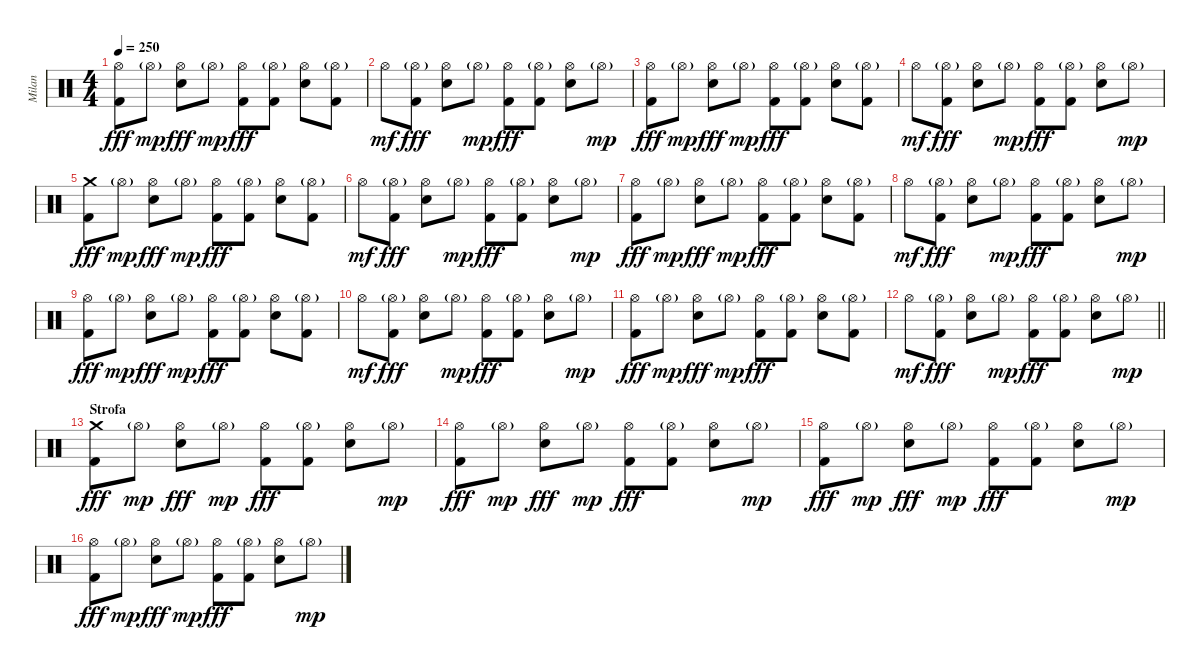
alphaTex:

\track ("Milan" "Milan") {instrument percussion}
\staff {score}
\articulation defaults
\ts (4 4)
\tempo 250
\clef neutral
\ks c
("Hi-Hat (open)" "Kick (hit) 2").8{dy fff} "Hi-Hat (open)"{g}.8{dy mp} ("Hi-Hat (open)" "Snare (hit) 2").8{dy fff} "Hi-Hat (open)"{g}.8{dy mp} ("Hi-Hat (open)" "Kick (hit) 2").8{dy fff} ("Hi-Hat (open)"{g} "Kick (hit) 2").8 ("Hi-Hat (open)" "Snare (hit) 2").8 ("Hi-Hat (open)"{g} "Kick (hit) 2").8 |
"Hi-Hat (open)".8{dy mf} ("Hi-Hat (open)"{g} "Kick (hit) 2").8{dy fff} ("Hi-Hat (open)" "Snare (hit) 2").8 "Hi-Hat (open)"{g}.8{dy mp} ("Hi-Hat (open)" "Kick (hit) 2").8{dy fff} ("Hi-Hat (open)"{g} "Kick (hit) 2").8 ("Hi-Hat (open)" "Snare (hit) 2").8 "Hi-Hat (open)"{g}.8{dy mp} |
("Hi-Hat (open)" "Kick (hit) 2").8{dy fff} "Hi-Hat (open)"{g}.8{dy mp} ("Hi-Hat (open)" "Snare (hit) 2").8{dy fff} "Hi-Hat (open)"{g}.8{dy mp} ("Hi-Hat (open)" "Kick (hit) 2").8{dy fff} ("Hi-Hat (open)"{g} "Kick (hit) 2").8 ("Hi-Hat (open)" "Snare (hit) 2").8 ("Hi-Hat (open)"{g} "Kick (hit) 2").8 |
"Hi-Hat (open)".8{dy mf} ("Hi-Hat (open)"{g} "Kick (hit) 2").8{dy fff} ("Hi-Hat (open)" "Snare (hit) 2").8 "Hi-Hat (open)"{g}.8{dy mp} ("Hi-Hat (open)" "Kick (hit) 2").8{dy fff} ("Hi-Hat (open)"{g} "Kick (hit) 2").8 ("Hi-Hat (open)" "Snare (hit) 2").8 "Hi-Hat (open)"{g}.8{dy mp} |
("Crash medium (hit)" "Kick (hit) 2").8{dy fff} "Hi-Hat (open)"{g}.8{dy mp} ("Hi-Hat (open)" "Snare (hit) 2").8{dy fff} "Hi-Hat (open)"{g}.8{dy mp} ("Hi-Hat (open)" "Kick (hit) 2").8{dy fff} ("Hi-Hat (open)"{g} "Kick (hit) 2").8 ("Hi-Hat (open)" "Snare (hit) 2").8 ("Hi-Hat (open)"{g} "Kick (hit) 2").8 |
"Hi-Hat (open)".8{dy mf} ("Hi-Hat (open)"{g} "Kick (hit) 2").8{dy fff} ("Hi-Hat (open)" "Snare (hit) 2").8 "Hi-Hat (open)"{g}.8{dy mp} ("Hi-Hat (open)" "Kick (hit) 2").8{dy fff} ("Hi-Hat (open)"{g} "Kick (hit) 2").8 ("Hi-Hat (open)" "Snare (hit) 2").8 "Hi-Hat (open)"{g}.8{dy mp} |
("Hi-Hat (open)" "Kick (hit) 2").8{dy fff} "Hi-Hat (open)"{g}.8{dy mp} ("Hi-Hat (open)" "Snare (hit) 2").8{dy fff} "Hi-Hat (open)"{g}.8{dy mp} ("Hi-Hat (open)" "Kick (hit) 2").8{dy fff} ("Hi-Hat (open)"{g} "Kick (hit) 2").8 ("Hi-Hat (open)" "Snare (hit) 2").8 ("Hi-Hat (open)"{g} "Kick (hit) 2").8 |
"Hi-Hat (open)".8{dy mf} ("Hi-Hat (open)"{g} "Kick (hit) 2").8{dy fff} ("Hi-Hat (open)" "Snare (hit) 2").8 "Hi-Hat (open)"{g}.8{dy mp} ("Hi-Hat (open)" "Kick (hit) 2").8{dy fff} ("Hi-Hat (open)"{g} "Kick (hit) 2").8 ("Hi-Hat (open)" "Snare (hit) 2").8 "Hi-Hat (open)"{g}.8{dy mp} |
("Hi-Hat (open)" "Kick (hit) 2").8{dy fff} "Hi-Hat (open)"{g}.8{dy mp} ("Hi-Hat (open)" "Snare (hit) 2").8{dy fff} "Hi-Hat (open)"{g}.8{dy mp} ("Hi-Hat (open)" "Kick (hit) 2").8{dy fff} ("Hi-Hat (open)"{g} "Kick (hit) 2").8 ("Hi-Hat (open)" "Snare (hit) 2").8 ("Hi-Hat (open)"{g} "Kick (hit) 2").8 |
"Hi-Hat (open)".8{dy mf} ("Hi-Hat (open)"{g} "Kick (hit) 2").8{dy fff} ("Hi-Hat (open)" "Snare (hit) 2").8 "Hi-Hat (open)"{g}.8{dy mp} ("Hi-Hat (open)" "Kick (hit) 2").8{dy fff} ("Hi-Hat (open)"{g} "Kick (hit) 2").8 ("Hi-Hat (open)" "Snare (hit) 2").8 "Hi-Hat (open)"{g}.8{dy mp} |
("Hi-Hat (open)" "Kick (hit) 2").8{dy fff} "Hi-Hat (open)"{g}.8{dy mp} ("Hi-Hat (open)" "Snare (hit) 2").8{dy fff} "Hi-Hat (open)"{g}.8{dy mp} ("Hi-Hat (open)" "Kick (hit) 2").8{dy fff} ("Hi-Hat (open)"{g} "Kick (hit) 2").8 ("Hi-Hat (open)" "Snare (hit) 2").8 ("Hi-Hat (open)"{g} "Kick (hit) 2").8 |
\barLineRight lightlight "Hi-Hat (open)".8{dy mf}
("Hi-Hat (open)"{g} "Kick (hit) 2").8{dy fff} ("Hi-Hat (open)" "Snare (hit) 2").8 "Hi-Hat (open)"{g}.8{dy mp} ("Hi-Hat (open)" "Kick (hit) 2").8{dy fff} ("Hi-Hat (open)"{g} "Kick (hit) 2").8 ("Hi-Hat (open)" "Snare (hit) 2").8 "Hi-Hat (open)"{g}.8{dy mp} |
\section ("" "Strofa")
("Crash medium (hit)" "Kick (hit) 2").8{dy fff} "Hi-Hat (open)"{g}.8{dy mp} ("Hi-Hat (open)" "Snare (hit) 2").8{dy fff} "Hi-Hat (open)"{g}.8{dy mp} ("Hi-Hat (open)" "Kick (hit) 2").8{dy fff} ("Hi-Hat (open)"{g} "Kick (hit) 2").8 ("Hi-Hat (open)" "Snare (hit) 2").8 "Hi-Hat (open)"{g}.8{dy mp} |
("Hi-Hat (open)" "Kick (hit) 2").8{dy fff} "Hi-Hat (open)"{g}.8{dy mp} ("Hi-Hat (open)" "Snare (hit) 2").8{dy fff} "Hi-Hat (open)"{g}.8{dy mp} ("Hi-Hat (open)" "Kick (hit) 2").8{dy fff} ("Hi-Hat (open)"{g} "Kick (hit) 2").8 ("Hi-Hat (open)" "Snare (hit) 2").8 "Hi-Hat (open)"{g}.8{dy mp} |
("Hi-Hat (open)" "Kick (hit) 2").8{dy fff} "Hi-Hat (open)"{g}.8{dy mp} ("Hi-Hat (open)" "Snare (hit) 2").8{dy fff} "Hi-Hat (open)"{g}.8{dy mp} ("Hi-Hat (open)" "Kick (hit) 2").8{dy fff} ("Hi-Hat (open)"{g} "Kick (hit) 2").8 ("Hi-Hat (open)" "Snare (hit) 2").8 "Hi-Hat (open)"{g}.8{dy mp} |
("Hi-Hat (open)" "Kick (hit) 2").8{dy fff} "Hi-Hat (open)"{g}.8{dy mp} ("Hi-Hat (open)" "Snare (hit) 2").8{dy fff} "Hi-Hat (open)"{g}.8{dy mp} ("Hi-Hat (open)" "Kick (hit) 2").8{dy fff} ("Hi-Hat (open)"{g} "Kick (hit) 2").8 ("Hi-Hat (open)" "Snare (hit) 2").8 "Hi-Hat (open)"{g}.8{dy mp}
